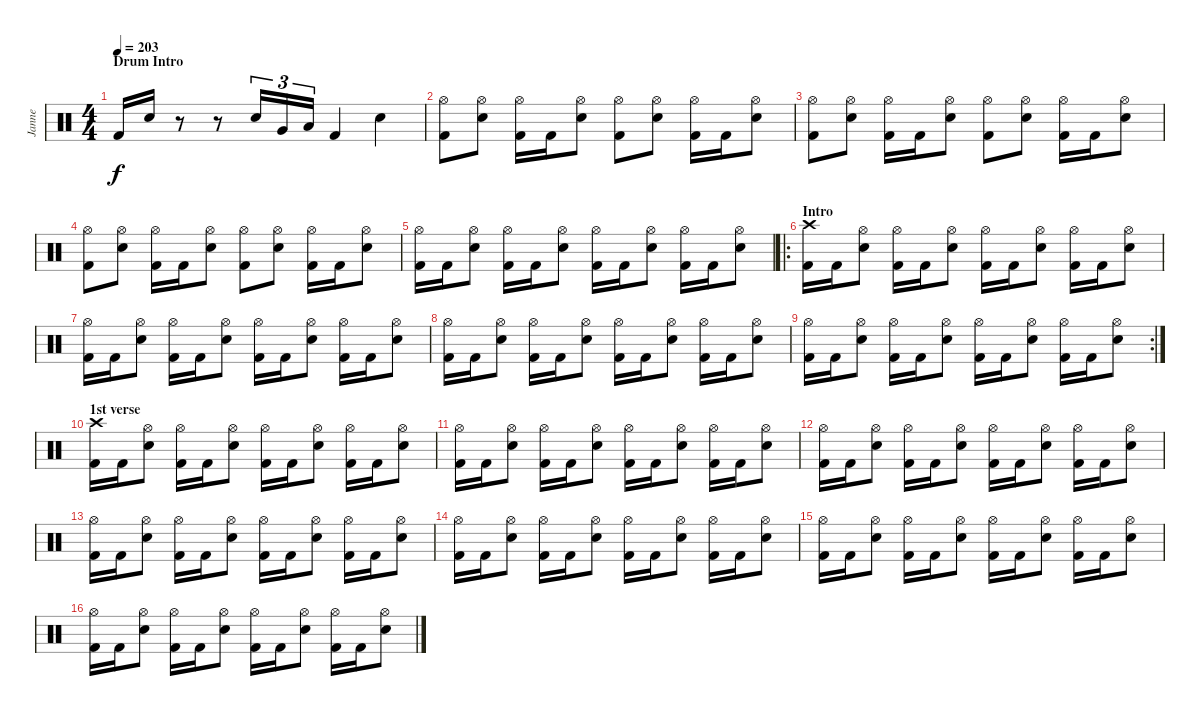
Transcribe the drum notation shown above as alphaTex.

\track ("Janne" "Janne") {instrument percussion}
\staff {score}
\articulation defaults
\ts (4 4)
\section ("" "Drum Intro")
\tempo 203
\clef neutral
\ks c "Kick (hit) 2".16{dy f} "Electric Snare (hit)".16
r.8 r.8 "Electric Snare (hit)".16{tu (3 2)} "Very Low Tom (hit)".16{tu (3 2)} "Low Floor Tom (hit)".16{tu (3 2)} "Kick (hit) 2".4 "Electric Snare (hit)".4 |
("Hi-Hat (open)" "Kick (hit) 2").8 ("Hi-Hat (open)" "Electric Snare (hit)").8 ("Hi-Hat (open)" "Kick (hit) 2").16 "Kick (hit) 2".16 ("Hi-Hat (open)" "Electric Snare (hit)").8 ("Hi-Hat (open)" "Kick (hit) 2").8 ("Hi-Hat (open)" "Electric Snare (hit)").8 ("Hi-Hat (open)" "Kick (hit) 2").16 "Kick (hit) 2".16 ("Hi-Hat (open)" "Electric Snare (hit)").8 |
("Hi-Hat (open)" "Kick (hit) 2").8 ("Hi-Hat (open)" "Electric Snare (hit)").8 ("Hi-Hat (open)" "Kick (hit) 2").16 "Kick (hit) 2".16 ("Hi-Hat (open)" "Electric Snare (hit)").8 ("Hi-Hat (open)" "Kick (hit) 2").8 ("Hi-Hat (open)" "Electric Snare (hit)").8 ("Hi-Hat (open)" "Kick (hit) 2").16 "Kick (hit) 2".16 ("Hi-Hat (open)" "Electric Snare (hit)").8 |
("Hi-Hat (open)" "Kick (hit) 2").8 ("Hi-Hat (open)" "Electric Snare (hit)").8 ("Hi-Hat (open)" "Kick (hit) 2").16 "Kick (hit) 2".16 ("Hi-Hat (open)" "Electric Snare (hit)").8 ("Hi-Hat (open)" "Kick (hit) 2").8 ("Hi-Hat (open)" "Electric Snare (hit)").8 ("Hi-Hat (open)" "Kick (hit) 2").16 "Kick (hit) 2".16 ("Hi-Hat (open)" "Electric Snare (hit)").8 |
("Hi-Hat (open)" "Kick (hit) 2").16 "Kick (hit) 2".16 ("Hi-Hat (open)" "Electric Snare (hit)").8 ("Hi-Hat (open)" "Kick (hit) 2").16 "Kick (hit) 2".16 ("Hi-Hat (open)" "Electric Snare (hit)").8 ("Hi-Hat (open)" "Kick (hit) 2").16 "Kick (hit) 2".16 ("Hi-Hat (open)" "Electric Snare (hit)").8 ("Hi-Hat (open)" "Kick (hit) 2").16 "Kick (hit) 2".16 ("Hi-Hat (open)" "Electric Snare (hit)").8 |
\ro
\section ("" "Intro")
("Crash high (hit)" "Kick (hit) 2").16 "Kick (hit) 2".16 ("Hi-Hat (open)" "Electric Snare (hit)").8 ("Hi-Hat (open)" "Kick (hit) 2").16 "Kick (hit) 2".16 ("Hi-Hat (open)" "Electric Snare (hit)").8 ("Hi-Hat (open)" "Kick (hit) 2").16 "Kick (hit) 2".16 ("Hi-Hat (open)" "Electric Snare (hit)").8 ("Hi-Hat (open)" "Kick (hit) 2").16 "Kick (hit) 2".16 ("Hi-Hat (open)" "Electric Snare (hit)").8 |
("Hi-Hat (open)" "Kick (hit) 2").16 "Kick (hit) 2".16 ("Hi-Hat (open)" "Electric Snare (hit)").8 ("Hi-Hat (open)" "Kick (hit) 2").16 "Kick (hit) 2".16 ("Hi-Hat (open)" "Electric Snare (hit)").8 ("Hi-Hat (open)" "Kick (hit) 2").16 "Kick (hit) 2".16 ("Hi-Hat (open)" "Electric Snare (hit)").8 ("Hi-Hat (open)" "Kick (hit) 2").16 "Kick (hit) 2".16 ("Hi-Hat (open)" "Electric Snare (hit)").8 |
("Hi-Hat (open)" "Kick (hit) 2").16 "Kick (hit) 2".16 ("Hi-Hat (open)" "Electric Snare (hit)").8 ("Hi-Hat (open)" "Kick (hit) 2").16 "Kick (hit) 2".16 ("Hi-Hat (open)" "Electric Snare (hit)").8 ("Hi-Hat (open)" "Kick (hit) 2").16 "Kick (hit) 2".16 ("Hi-Hat (open)" "Electric Snare (hit)").8 ("Hi-Hat (open)" "Kick (hit) 2").16 "Kick (hit) 2".16 ("Hi-Hat (open)" "Electric Snare (hit)").8 |
\rc 2
("Hi-Hat (open)" "Kick (hit) 2").16 "Kick (hit) 2".16 ("Hi-Hat (open)" "Electric Snare (hit)").8 ("Hi-Hat (open)" "Kick (hit) 2").16 "Kick (hit) 2".16 ("Hi-Hat (open)" "Electric Snare (hit)").8 ("Hi-Hat (open)" "Kick (hit) 2").16 "Kick (hit) 2".16 ("Hi-Hat (open)" "Electric Snare (hit)").8 ("Hi-Hat (open)" "Kick (hit) 2").16 "Kick (hit) 2".16 ("Hi-Hat (open)" "Electric Snare (hit)").8 |
\section ("" "1st verse")
("Crash high (hit)" "Kick (hit) 2").16 "Kick (hit) 2".16 ("Hi-Hat (open)" "Electric Snare (hit)").8 ("Hi-Hat (open)" "Kick (hit) 2").16 "Kick (hit) 2".16 ("Hi-Hat (open)" "Electric Snare (hit)").8 ("Hi-Hat (open)" "Kick (hit) 2").16 "Kick (hit) 2".16 ("Hi-Hat (open)" "Electric Snare (hit)").8 ("Hi-Hat (open)" "Kick (hit) 2").16 "Kick (hit) 2".16 ("Hi-Hat (open)" "Electric Snare (hit)").8 |
("Hi-Hat (open)" "Kick (hit) 2").16 "Kick (hit) 2".16 ("Hi-Hat (open)" "Electric Snare (hit)").8 ("Hi-Hat (open)" "Kick (hit) 2").16 "Kick (hit) 2".16 ("Hi-Hat (open)" "Electric Snare (hit)").8 ("Hi-Hat (open)" "Kick (hit) 2").16 "Kick (hit) 2".16 ("Hi-Hat (open)" "Electric Snare (hit)").8 ("Hi-Hat (open)" "Kick (hit) 2").16 "Kick (hit) 2".16 ("Hi-Hat (open)" "Electric Snare (hit)").8 |
("Hi-Hat (open)" "Kick (hit) 2").16 "Kick (hit) 2".16 ("Hi-Hat (open)" "Electric Snare (hit)").8 ("Hi-Hat (open)" "Kick (hit) 2").16 "Kick (hit) 2".16 ("Hi-Hat (open)" "Electric Snare (hit)").8 ("Hi-Hat (open)" "Kick (hit) 2").16 "Kick (hit) 2".16 ("Hi-Hat (open)" "Electric Snare (hit)").8 ("Hi-Hat (open)" "Kick (hit) 2").16 "Kick (hit) 2".16 ("Hi-Hat (open)" "Electric Snare (hit)").8 |
("Hi-Hat (open)" "Kick (hit) 2").16 "Kick (hit) 2".16 ("Hi-Hat (open)" "Electric Snare (hit)").8 ("Hi-Hat (open)" "Kick (hit) 2").16 "Kick (hit) 2".16 ("Hi-Hat (open)" "Electric Snare (hit)").8 ("Hi-Hat (open)" "Kick (hit) 2").16 "Kick (hit) 2".16 ("Hi-Hat (open)" "Electric Snare (hit)").8 ("Hi-Hat (open)" "Kick (hit) 2").16 "Kick (hit) 2".16 ("Hi-Hat (open)" "Electric Snare (hit)").8 |
("Hi-Hat (open)" "Kick (hit) 2").16 "Kick (hit) 2".16 ("Hi-Hat (open)" "Electric Snare (hit)").8 ("Hi-Hat (open)" "Kick (hit) 2").16 "Kick (hit) 2".16 ("Hi-Hat (open)" "Electric Snare (hit)").8 ("Hi-Hat (open)" "Kick (hit) 2").16 "Kick (hit) 2".16 ("Hi-Hat (open)" "Electric Snare (hit)").8 ("Hi-Hat (open)" "Kick (hit) 2").16 "Kick (hit) 2".16 ("Hi-Hat (open)" "Electric Snare (hit)").8 |
("Hi-Hat (open)" "Kick (hit) 2").16 "Kick (hit) 2".16 ("Hi-Hat (open)" "Electric Snare (hit)").8 ("Hi-Hat (open)" "Kick (hit) 2").16 "Kick (hit) 2".16 ("Hi-Hat (open)" "Electric Snare (hit)").8 ("Hi-Hat (open)" "Kick (hit) 2").16 "Kick (hit) 2".16 ("Hi-Hat (open)" "Electric Snare (hit)").8 ("Hi-Hat (open)" "Kick (hit) 2").16 "Kick (hit) 2".16 ("Hi-Hat (open)" "Electric Snare (hit)").8 |
("Hi-Hat (open)" "Kick (hit) 2").16 "Kick (hit) 2".16 ("Hi-Hat (open)" "Electric Snare (hit)").8 ("Hi-Hat (open)" "Kick (hit) 2").16 "Kick (hit) 2".16 ("Hi-Hat (open)" "Electric Snare (hit)").8 ("Hi-Hat (open)" "Kick (hit) 2").16 "Kick (hit) 2".16 ("Hi-Hat (open)" "Electric Snare (hit)").8 ("Hi-Hat (open)" "Kick (hit) 2").16 "Kick (hit) 2".16 ("Hi-Hat (open)" "Electric Snare (hit)").8
